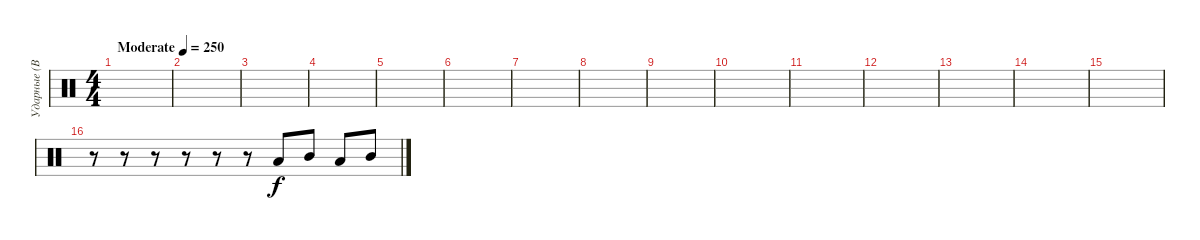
\track ("Ударные (Вася)" "Ударные (В") {instrument percussion}
\staff {score}
\articulation defaults
\ts (4 4)
\tempo (250 "Moderate")
\clef neutral
\ks c
|
|
|
|
|
|
|
|
|
|
|
|
|
|
|
r.8 r.8 r.8 r.8 r.8 r.8 "Low Tom (hit)".8 "Mid Tom (hit)".8 "Low Tom (hit)".8 "Mid Tom (hit)".8
